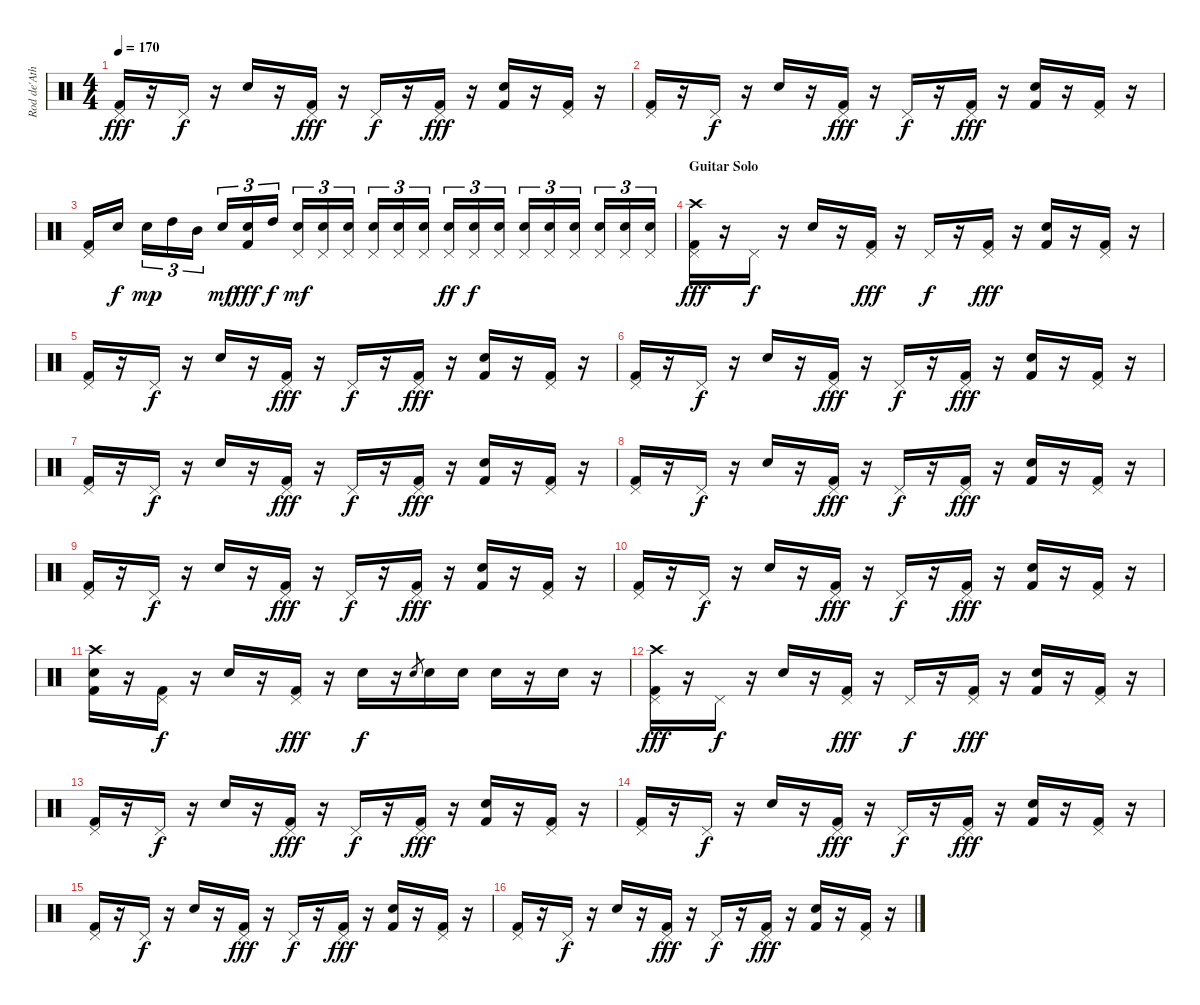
\track ("Rod de'Ath" "Rod de'Ath") {instrument percussion}
\staff {score}
\articulation defaults
\ts (4 4)
\tempo 170
\clef neutral
\ks c
("Pedal Hi-Hat (hit)" "Kick (hit) 2").16{dy fff} r.16 "Pedal Hi-Hat (hit)".16{dy f} r.16 "Snare (hit) 2".16 r.16 ("Pedal Hi-Hat (hit)" "Kick (hit) 2").16{dy fff} r.16 "Pedal Hi-Hat (hit)".16{dy f} r.16 ("Pedal Hi-Hat (hit)" "Kick (hit) 2").16{dy fff} r.16 ("Electric Snare (hit)" "Kick (hit) 2").16 r.16 ("Pedal Hi-Hat (hit)" "Kick (hit) 2").16 r.16 |
("Pedal Hi-Hat (hit)" "Kick (hit) 2").16 r.16 "Pedal Hi-Hat (hit)".16{dy f} r.16 "Snare (hit) 2".16 r.16 ("Pedal Hi-Hat (hit)" "Kick (hit) 2").16{dy fff} r.16 "Pedal Hi-Hat (hit)".16{dy f} r.16 ("Pedal Hi-Hat (hit)" "Kick (hit) 2").16{dy fff} r.16 ("Electric Snare (hit)" "Kick (hit) 2").16 r.16 ("Pedal Hi-Hat (hit)" "Kick (hit) 2").16 r.16 |
("Pedal Hi-Hat (hit)" "Kick (hit) 2").16 "Electric Snare (hit)".16{dy f} "Snare (hit) 2".16{tu (3 2) dy mp} "High Tom (hit)".16{tu (3 2)} "Mid Tom (hit)".16{tu (3 2)} "Electric Snare (hit)".16{tu (3 2) dy mf} ("Snare (hit) 2" "Kick (hit) 2").16{tu (3 2) dy fff} "High Tom (hit)".16{tu (3 2) dy f} ("Snare (hit) 2" "Pedal Hi-Hat (hit)").16{tu (3 2) dy mf} ("Snare (hit) 2" "Pedal Hi-Hat (hit)").16{tu (3 2)} ("Snare (hit) 2" "Pedal Hi-Hat (hit)").16{tu (3 2)} ("Snare (hit) 2" "Pedal Hi-Hat (hit)").16{tu (3 2)} ("Snare (hit) 2" "Pedal Hi-Hat (hit)").16{tu (3 2)} ("Snare (hit) 2" "Pedal Hi-Hat (hit)").16{tu (3 2)} ("Snare (hit) 2" "Pedal Hi-Hat (hit)").16{tu (3 2) dy ff} ("Snare (hit) 2" "Pedal Hi-Hat (hit)").16{tu (3 2) dy f} ("Snare (hit) 2" "Pedal Hi-Hat (hit)").16{tu (3 2)} ("Electric Snare (hit)" "Pedal Hi-Hat (hit)").16{tu (3 2)} ("Electric Snare (hit)" "Pedal Hi-Hat (hit)").16{tu (3 2)} ("Electric Snare (hit)" "Pedal Hi-Hat (hit)").16{tu (3 2)} ("Electric Snare (hit)" "Pedal Hi-Hat (hit)").16{tu (3 2)} ("Electric Snare (hit)" "Pedal Hi-Hat (hit)").16{tu (3 2)} ("Electric Snare (hit)" "Pedal Hi-Hat (hit)").16{tu (3 2)} |
\section ("" "Guitar Solo")
("Crash high (hit)" "Pedal Hi-Hat (hit)" "Kick (hit) 2").16{dy fff} r.16 "Pedal Hi-Hat (hit)".16{dy f} r.16 "Snare (hit) 2".16 r.16 ("Pedal Hi-Hat (hit)" "Kick (hit) 2").16{dy fff} r.16 "Pedal Hi-Hat (hit)".16{dy f} r.16 ("Pedal Hi-Hat (hit)" "Kick (hit) 2").16{dy fff} r.16 ("Electric Snare (hit)" "Kick (hit) 2").16 r.16 ("Pedal Hi-Hat (hit)" "Kick (hit) 2").16 r.16 |
("Pedal Hi-Hat (hit)" "Kick (hit) 2").16 r.16 "Pedal Hi-Hat (hit)".16{dy f} r.16 "Snare (hit) 2".16 r.16 ("Pedal Hi-Hat (hit)" "Kick (hit) 2").16{dy fff} r.16 "Pedal Hi-Hat (hit)".16{dy f} r.16 ("Pedal Hi-Hat (hit)" "Kick (hit) 2").16{dy fff} r.16 ("Electric Snare (hit)" "Kick (hit) 2").16 r.16 ("Pedal Hi-Hat (hit)" "Kick (hit) 2").16 r.16 |
("Pedal Hi-Hat (hit)" "Kick (hit) 2").16 r.16 "Pedal Hi-Hat (hit)".16{dy f} r.16 "Snare (hit) 2".16 r.16 ("Pedal Hi-Hat (hit)" "Kick (hit) 2").16{dy fff} r.16 "Pedal Hi-Hat (hit)".16{dy f} r.16 ("Pedal Hi-Hat (hit)" "Kick (hit) 2").16{dy fff} r.16 ("Electric Snare (hit)" "Kick (hit) 2").16 r.16 ("Pedal Hi-Hat (hit)" "Kick (hit) 2").16 r.16 |
("Pedal Hi-Hat (hit)" "Kick (hit) 2").16 r.16 "Pedal Hi-Hat (hit)".16{dy f} r.16 "Snare (hit) 2".16 r.16 ("Pedal Hi-Hat (hit)" "Kick (hit) 2").16{dy fff} r.16 "Pedal Hi-Hat (hit)".16{dy f} r.16 ("Pedal Hi-Hat (hit)" "Kick (hit) 2").16{dy fff} r.16 ("Electric Snare (hit)" "Kick (hit) 2").16 r.16 ("Pedal Hi-Hat (hit)" "Kick (hit) 2").16 r.16 |
("Pedal Hi-Hat (hit)" "Kick (hit) 2").16 r.16 "Pedal Hi-Hat (hit)".16{dy f} r.16 "Snare (hit) 2".16 r.16 ("Pedal Hi-Hat (hit)" "Kick (hit) 2").16{dy fff} r.16 "Pedal Hi-Hat (hit)".16{dy f} r.16 ("Pedal Hi-Hat (hit)" "Kick (hit) 2").16{dy fff} r.16 ("Electric Snare (hit)" "Kick (hit) 2").16 r.16 ("Pedal Hi-Hat (hit)" "Kick (hit) 2").16 r.16 |
("Pedal Hi-Hat (hit)" "Kick (hit) 2").16 r.16 "Pedal Hi-Hat (hit)".16{dy f} r.16 "Snare (hit) 2".16 r.16 ("Pedal Hi-Hat (hit)" "Kick (hit) 2").16{dy fff} r.16 "Pedal Hi-Hat (hit)".16{dy f} r.16 ("Pedal Hi-Hat (hit)" "Kick (hit) 2").16{dy fff} r.16 ("Electric Snare (hit)" "Kick (hit) 2").16 r.16 ("Pedal Hi-Hat (hit)" "Kick (hit) 2").16 r.16 |
("Pedal Hi-Hat (hit)" "Kick (hit) 2").16 r.16 "Pedal Hi-Hat (hit)".16{dy f} r.16 "Snare (hit) 2".16 r.16 ("Pedal Hi-Hat (hit)" "Kick (hit) 2").16{dy fff} r.16 "Pedal Hi-Hat (hit)".16{dy f} r.16 ("Pedal Hi-Hat (hit)" "Kick (hit) 2").16{dy fff} r.16 ("Electric Snare (hit)" "Kick (hit) 2").16 r.16 ("Pedal Hi-Hat (hit)" "Kick (hit) 2").16 r.16 |
("Crash high (hit)" "Snare (hit) 2" "Kick (hit) 2").16 r.16 ("Pedal Hi-Hat (hit)" "Kick (hit) 2").16{dy f} r.16 "Snare (hit) 2".16 r.16 ("Pedal Hi-Hat (hit)" "Kick (hit) 2").16{dy fff} r.16 "Snare (hit) 2".16{dy f} r.16 "Snare (hit) 2".8{gr} "Electric Snare (hit)".16 "Electric Snare (hit)".16 "Electric Snare (hit)".16 r.16 "Electric Snare (hit)".16 r.16 |
("Crash high (hit)" "Pedal Hi-Hat (hit)" "Kick (hit) 2").16{dy fff} r.16 "Pedal Hi-Hat (hit)".16{dy f} r.16 "Snare (hit) 2".16 r.16 ("Pedal Hi-Hat (hit)" "Kick (hit) 2").16{dy fff} r.16 "Pedal Hi-Hat (hit)".16{dy f} r.16 ("Pedal Hi-Hat (hit)" "Kick (hit) 2").16{dy fff} r.16 ("Electric Snare (hit)" "Kick (hit) 2").16 r.16 ("Pedal Hi-Hat (hit)" "Kick (hit) 2").16 r.16 |
("Pedal Hi-Hat (hit)" "Kick (hit) 2").16 r.16 "Pedal Hi-Hat (hit)".16{dy f} r.16 "Snare (hit) 2".16 r.16 ("Pedal Hi-Hat (hit)" "Kick (hit) 2").16{dy fff} r.16 "Pedal Hi-Hat (hit)".16{dy f} r.16 ("Pedal Hi-Hat (hit)" "Kick (hit) 2").16{dy fff} r.16 ("Electric Snare (hit)" "Kick (hit) 2").16 r.16 ("Pedal Hi-Hat (hit)" "Kick (hit) 2").16 r.16 |
("Pedal Hi-Hat (hit)" "Kick (hit) 2").16 r.16 "Pedal Hi-Hat (hit)".16{dy f} r.16 "Snare (hit) 2".16 r.16 ("Pedal Hi-Hat (hit)" "Kick (hit) 2").16{dy fff} r.16 "Pedal Hi-Hat (hit)".16{dy f} r.16 ("Pedal Hi-Hat (hit)" "Kick (hit) 2").16{dy fff} r.16 ("Electric Snare (hit)" "Kick (hit) 2").16 r.16 ("Pedal Hi-Hat (hit)" "Kick (hit) 2").16 r.16 |
("Pedal Hi-Hat (hit)" "Kick (hit) 2").16 r.16 "Pedal Hi-Hat (hit)".16{dy f} r.16 "Snare (hit) 2".16 r.16 ("Pedal Hi-Hat (hit)" "Kick (hit) 2").16{dy fff} r.16 "Pedal Hi-Hat (hit)".16{dy f} r.16 ("Pedal Hi-Hat (hit)" "Kick (hit) 2").16{dy fff} r.16 ("Electric Snare (hit)" "Kick (hit) 2").16 r.16 ("Pedal Hi-Hat (hit)" "Kick (hit) 2").16 r.16 |
("Pedal Hi-Hat (hit)" "Kick (hit) 2").16 r.16 "Pedal Hi-Hat (hit)".16{dy f} r.16 "Snare (hit) 2".16 r.16 ("Pedal Hi-Hat (hit)" "Kick (hit) 2").16{dy fff} r.16 "Pedal Hi-Hat (hit)".16{dy f} r.16 ("Pedal Hi-Hat (hit)" "Kick (hit) 2").16{dy fff} r.16 ("Electric Snare (hit)" "Kick (hit) 2").16 r.16 ("Pedal Hi-Hat (hit)" "Kick (hit) 2").16 r.16
